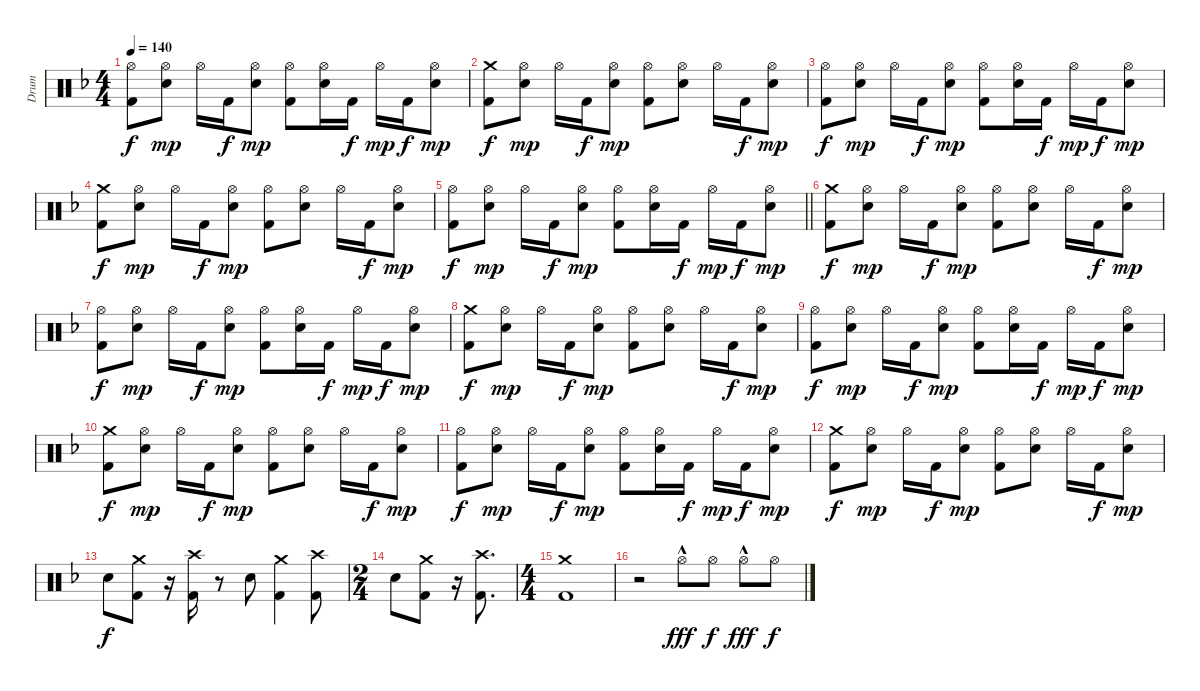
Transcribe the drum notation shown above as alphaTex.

\track ("Drum" "Drum") {instrument percussion}
\staff {score}
\articulation defaults
\ts (4 4)
\tempo 140
\clef neutral
\ks dminor
("Hi-Hat (open)" "Kick (hit) 2").8{dy f} ("Hi-Hat (open)" "Snare (hit) 2").8{dy mp} "Hi-Hat (open)".16 "Kick (hit) 2".16{dy f} ("Hi-Hat (open)" "Snare (hit) 2").8{dy mp} ("Hi-Hat (open)" "Kick (hit) 2").8 ("Hi-Hat (open)" "Snare (hit) 2").16 "Kick (hit) 2".16{dy f} "Hi-Hat (open)".16{dy mp} "Kick (hit) 2".16{dy f} ("Hi-Hat (open)" "Snare (hit) 2").8{dy mp} |
("Crash medium (hit)" "Kick (hit) 2").8{dy f} ("Hi-Hat (open)" "Snare (hit) 2").8{dy mp} "Hi-Hat (open)".16 "Kick (hit) 2".16{dy f} ("Hi-Hat (open)" "Snare (hit) 2").8{dy mp} ("Hi-Hat (open)" "Kick (hit) 2").8 ("Hi-Hat (open)" "Snare (hit) 2").8 "Hi-Hat (open)".16 "Kick (hit) 2".16{dy f} ("Hi-Hat (open)" "Snare (hit) 2").8{dy mp} |
("Hi-Hat (open)" "Kick (hit) 2").8{dy f} ("Hi-Hat (open)" "Snare (hit) 2").8{dy mp} "Hi-Hat (open)".16 "Kick (hit) 2".16{dy f} ("Hi-Hat (open)" "Snare (hit) 2").8{dy mp} ("Hi-Hat (open)" "Kick (hit) 2").8 ("Hi-Hat (open)" "Snare (hit) 2").16 "Kick (hit) 2".16{dy f} "Hi-Hat (open)".16{dy mp} "Kick (hit) 2".16{dy f} ("Hi-Hat (open)" "Snare (hit) 2").8{dy mp} |
("Crash medium (hit)" "Kick (hit) 2").8{dy f} ("Hi-Hat (open)" "Snare (hit) 2").8{dy mp} "Hi-Hat (open)".16 "Kick (hit) 2".16{dy f} ("Hi-Hat (open)" "Snare (hit) 2").8{dy mp} ("Hi-Hat (open)" "Kick (hit) 2").8 ("Hi-Hat (open)" "Snare (hit) 2").8 "Hi-Hat (open)".16 "Kick (hit) 2".16{dy f} ("Hi-Hat (open)" "Snare (hit) 2").8{dy mp} |
\barLineRight lightlight
("Hi-Hat (open)" "Kick (hit) 2").8{dy f} ("Hi-Hat (open)" "Snare (hit) 2").8{dy mp} "Hi-Hat (open)".16 "Kick (hit) 2".16{dy f} ("Hi-Hat (open)" "Snare (hit) 2").8{dy mp} ("Hi-Hat (open)" "Kick (hit) 2").8 ("Hi-Hat (open)" "Snare (hit) 2").16 "Kick (hit) 2".16{dy f} "Hi-Hat (open)".16{dy mp} "Kick (hit) 2".16{dy f} ("Hi-Hat (open)" "Snare (hit) 2").8{dy mp} |
\section ("" "")
("Crash medium (hit)" "Kick (hit) 2").8{dy f} ("Hi-Hat (open)" "Snare (hit) 2").8{dy mp} "Hi-Hat (open)".16 "Kick (hit) 2".16{dy f} ("Hi-Hat (open)" "Snare (hit) 2").8{dy mp} ("Hi-Hat (open)" "Kick (hit) 2").8 ("Hi-Hat (open)" "Snare (hit) 2").8 "Hi-Hat (open)".16 "Kick (hit) 2".16{dy f} ("Hi-Hat (open)" "Snare (hit) 2").8{dy mp} |
("Hi-Hat (open)" "Kick (hit) 2").8{dy f} ("Hi-Hat (open)" "Snare (hit) 2").8{dy mp} "Hi-Hat (open)".16 "Kick (hit) 2".16{dy f} ("Hi-Hat (open)" "Snare (hit) 2").8{dy mp} ("Hi-Hat (open)" "Kick (hit) 2").8 ("Hi-Hat (open)" "Snare (hit) 2").16 "Kick (hit) 2".16{dy f} "Hi-Hat (open)".16{dy mp} "Kick (hit) 2".16{dy f} ("Hi-Hat (open)" "Snare (hit) 2").8{dy mp} |
("Crash medium (hit)" "Kick (hit) 2").8{dy f} ("Hi-Hat (open)" "Snare (hit) 2").8{dy mp} "Hi-Hat (open)".16 "Kick (hit) 2".16{dy f} ("Hi-Hat (open)" "Snare (hit) 2").8{dy mp} ("Hi-Hat (open)" "Kick (hit) 2").8 ("Hi-Hat (open)" "Snare (hit) 2").8 "Hi-Hat (open)".16 "Kick (hit) 2".16{dy f} ("Hi-Hat (open)" "Snare (hit) 2").8{dy mp} |
("Hi-Hat (open)" "Kick (hit) 2").8{dy f} ("Hi-Hat (open)" "Snare (hit) 2").8{dy mp} "Hi-Hat (open)".16 "Kick (hit) 2".16{dy f} ("Hi-Hat (open)" "Snare (hit) 2").8{dy mp} ("Hi-Hat (open)" "Kick (hit) 2").8 ("Hi-Hat (open)" "Snare (hit) 2").16 "Kick (hit) 2".16{dy f} "Hi-Hat (open)".16{dy mp} "Kick (hit) 2".16{dy f} ("Hi-Hat (open)" "Snare (hit) 2").8{dy mp} |
("Crash medium (hit)" "Kick (hit) 2").8{dy f} ("Hi-Hat (open)" "Snare (hit) 2").8{dy mp} "Hi-Hat (open)".16 "Kick (hit) 2".16{dy f} ("Hi-Hat (open)" "Snare (hit) 2").8{dy mp} ("Hi-Hat (open)" "Kick (hit) 2").8 ("Hi-Hat (open)" "Snare (hit) 2").8 "Hi-Hat (open)".16 "Kick (hit) 2".16{dy f} ("Hi-Hat (open)" "Snare (hit) 2").8{dy mp} |
("Hi-Hat (open)" "Kick (hit) 2").8{dy f} ("Hi-Hat (open)" "Snare (hit) 2").8{dy mp} "Hi-Hat (open)".16 "Kick (hit) 2".16{dy f} ("Hi-Hat (open)" "Snare (hit) 2").8{dy mp} ("Hi-Hat (open)" "Kick (hit) 2").8 ("Hi-Hat (open)" "Snare (hit) 2").16 "Kick (hit) 2".16{dy f} "Hi-Hat (open)".16{dy mp} "Kick (hit) 2".16{dy f} ("Hi-Hat (open)" "Snare (hit) 2").8{dy mp} |
("Crash medium (hit)" "Kick (hit) 2").8{dy f} ("Hi-Hat (open)" "Snare (hit) 2").8{dy mp} "Hi-Hat (open)".16 "Kick (hit) 2".16{dy f} ("Hi-Hat (open)" "Snare (hit) 2").8{dy mp} ("Hi-Hat (open)" "Kick (hit) 2").8 ("Hi-Hat (open)" "Snare (hit) 2").8 "Hi-Hat (open)".16 "Kick (hit) 2".16{dy f} ("Hi-Hat (open)" "Snare (hit) 2").8{dy mp} |
"Snare (hit) 2".8{dy f} ("Crash medium (hit)" "Kick (hit) 2").8 r.16 ("Crash high (hit)" "Kick (hit) 2").16 r.8 "Snare (hit) 2".8 ("Crash medium (hit)" "Kick (hit) 2").4 ("Crash high (hit)" "Kick (hit) 2").8 |
\ts (2 4)
"Snare (hit) 2".8 ("Crash medium (hit)" "Kick (hit) 2").8 r.16 ("Crash high (hit)" "Kick (hit) 2").8{d} |
\ts (4 4)
("Crash medium (hit)" "Kick (hit) 2").1 |
r.2 "Hi-Hat (open)"{hac}.8{dy fff} "Hi-Hat (open)".8{dy f} "Hi-Hat (open)"{hac}.8{dy fff} "Hi-Hat (open)".8{dy f}
